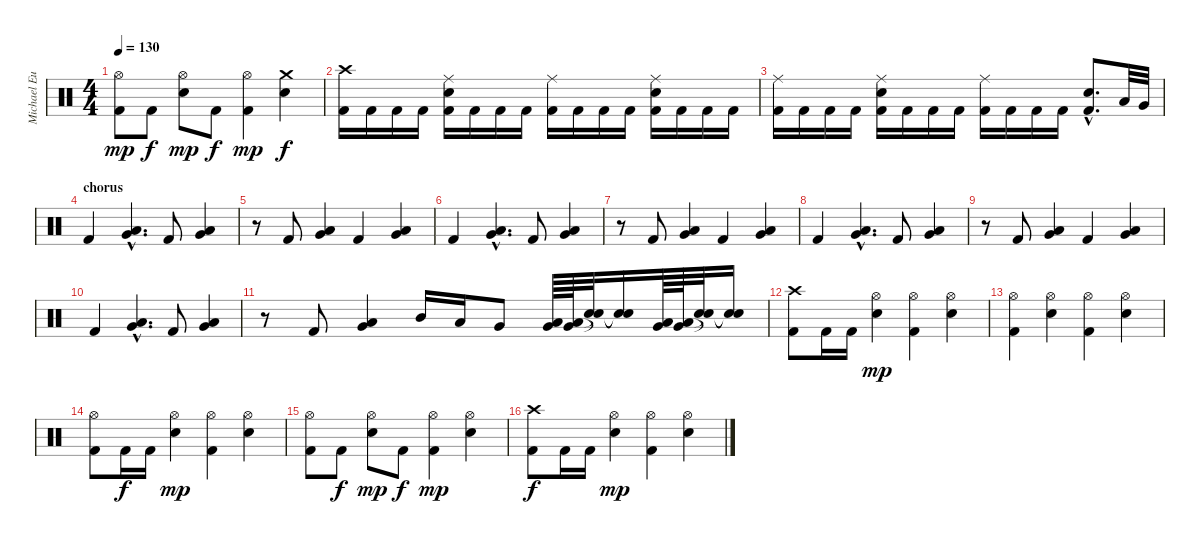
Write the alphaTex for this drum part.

\track ("Michael Eurich" "Michael Eu") {instrument percussion}
\staff {score}
\articulation defaults
\ts (4 4)
\tempo 130
\clef neutral
\ks c
("Kick (hit) 2" "Hi-Hat (open)").8{dy mp} "Kick (hit) 2".8{dy f} ("Hi-Hat (open)" "Snare (hit) 2").8{dy mp} "Kick (hit) 2".8{dy f} ("Kick (hit) 2" "Hi-Hat (open)").4{dy mp} ("Crash medium (hit)" "Snare (hit) 2").4{dy f} |
("Kick (hit) 2" "Crash high (hit)").16 "Kick (hit) 2".16 "Kick (hit) 2".16 "Kick (hit) 2".16 ("Kick (hit) 2" "Ride (middle)" "Snare (hit) 2").16 "Kick (hit) 2".16 "Kick (hit) 2".16 "Kick (hit) 2".16 ("Kick (hit) 2" "Ride (middle)").16 "Kick (hit) 2".16 "Kick (hit) 2".16 "Kick (hit) 2".16 ("Kick (hit) 2" "Ride (middle)" "Snare (hit) 2").16 "Kick (hit) 2".16 "Kick (hit) 2".16 "Kick (hit) 2".16 |
("Kick (hit) 2" "Ride (middle)").16 "Kick (hit) 2".16 "Kick (hit) 2".16 "Kick (hit) 2".16 ("Kick (hit) 2" "Ride (middle)" "Snare (hit) 2").16 "Kick (hit) 2".16 "Kick (hit) 2".16 "Kick (hit) 2".16 ("Kick (hit) 2" "Ride (middle)").16 "Kick (hit) 2".16 "Kick (hit) 2".16 "Kick (hit) 2".16 ("Kick (hit) 2"{hac} "Snare (hit) 2"{hac}).8{d} "Low Tom (hit)".32 "Very Low Tom (hit)".32 |
\section ("" "chorus")
"Kick (hit) 2".4 ("Low Floor Tom (hit)"{hac} "Very Low Tom (hit)"{hac}).4{d} "Kick (hit) 2".8 ("Low Floor Tom (hit)" "Very Low Tom (hit)").4 |
r.8 "Kick (hit) 2".8 ("Low Floor Tom (hit)" "Very Low Tom (hit)").4 "Kick (hit) 2".4 ("Low Floor Tom (hit)" "Very Low Tom (hit)").4 |
"Kick (hit) 2".4 ("Low Floor Tom (hit)"{hac} "Very Low Tom (hit)"{hac}).4{d} "Kick (hit) 2".8 ("Low Floor Tom (hit)" "Very Low Tom (hit)").4 |
r.8 "Kick (hit) 2".8 ("Low Floor Tom (hit)" "Very Low Tom (hit)").4 "Kick (hit) 2".4 ("Low Floor Tom (hit)" "Very Low Tom (hit)").4 |
"Kick (hit) 2".4 ("Low Floor Tom (hit)"{hac} "Very Low Tom (hit)"{hac}).4{d} "Kick (hit) 2".8 ("Low Floor Tom (hit)" "Very Low Tom (hit)").4 |
r.8 "Kick (hit) 2".8 ("Low Floor Tom (hit)" "Very Low Tom (hit)").4 "Kick (hit) 2".4 ("Low Floor Tom (hit)" "Very Low Tom (hit)").4 |
"Kick (hit) 2".4 ("Low Floor Tom (hit)"{hac} "Very Low Tom (hit)"{hac}).4{d} "Kick (hit) 2".8 ("Low Floor Tom (hit)" "Very Low Tom (hit)").4 |
r.8 "Kick (hit) 2".8 ("Low Floor Tom (hit)" "Very Low Tom (hit)").4 "Mid Tom (hit)".16 "Low Tom (hit)".16 "Very Low Tom (hit)".8 ("Low Floor Tom (hit)" "Very Low Tom (hit)").64 ("Low Floor Tom (hit)" "Very Low Tom (hit)").64 ("Snare (hit)"{t} "Snare (hit)"{t}).32 ("Snare (hit)"{t} "Snare (hit)"{t}).16 ("Low Floor Tom (hit)" "Very Low Tom (hit)").64 ("Low Floor Tom (hit)" "Very Low Tom (hit)").64 ("Snare (hit)"{t} "Snare (hit)"{t}).32 ("Snare (hit)"{t} "Snare (hit)"{t}).16 |
("Kick (hit) 2" "Crash high (hit)").8 "Kick (hit) 2".16 "Kick (hit) 2".16 ("Hi-Hat (open)" "Snare (hit) 2").4{dy mp} ("Kick (hit) 2" "Hi-Hat (open)").4 ("Hi-Hat (open)" "Snare (hit) 2").4 |
("Kick (hit) 2" "Hi-Hat (open)").4 ("Hi-Hat (open)" "Snare (hit) 2").4 ("Kick (hit) 2" "Hi-Hat (open)").4 ("Hi-Hat (open)" "Snare (hit) 2").4 |
("Kick (hit) 2" "Hi-Hat (open)").8 "Kick (hit) 2".16{dy f} "Kick (hit) 2".16 ("Hi-Hat (open)" "Snare (hit) 2").4{dy mp} ("Kick (hit) 2" "Hi-Hat (open)").4 ("Hi-Hat (open)" "Snare (hit) 2").4 |
("Kick (hit) 2" "Hi-Hat (open)").8 "Kick (hit) 2".8{dy f} ("Hi-Hat (open)" "Snare (hit) 2").8{dy mp} "Kick (hit) 2".8{dy f} ("Kick (hit) 2" "Hi-Hat (open)").4{dy mp} ("Hi-Hat (open)" "Snare (hit) 2").4 |
("Kick (hit) 2" "Crash high (hit)").8{dy f} "Kick (hit) 2".16 "Kick (hit) 2".16 ("Hi-Hat (open)" "Snare (hit) 2").4{dy mp} ("Kick (hit) 2" "Hi-Hat (open)").4 ("Hi-Hat (open)" "Snare (hit) 2").4
